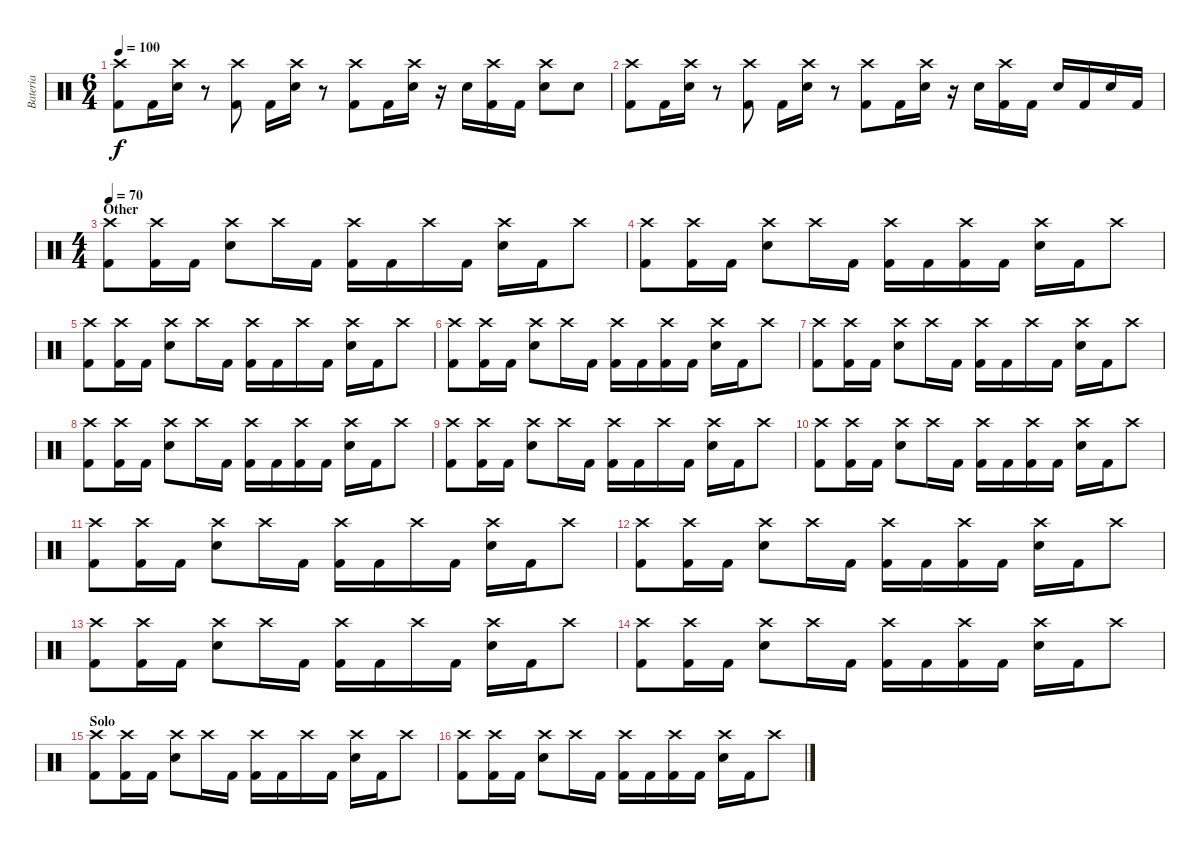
\track ("Bateria" "Bateria") {instrument percussion}
\staff {score}
\articulation defaults
\ts (6 4)
\tempo 100
\clef neutral
\ks c
("Crash high (hit)" "Kick (hit) 2").8{dy f} "Kick (hit) 2".16 ("Crash high (hit)" "Electric Snare (hit)").16 r.8 ("Crash high (hit)" "Kick (hit) 2").8 "Kick (hit) 2".16 ("Crash high (hit)" "Electric Snare (hit)").16 r.8 ("Crash high (hit)" "Kick (hit) 2").8 "Kick (hit) 2".16 ("Crash high (hit)" "Electric Snare (hit)").16 r.16 "Electric Snare (hit)".16 ("Crash high (hit)" "Kick (hit) 2").16 "Kick (hit) 2".16 ("Crash high (hit)" "Electric Snare (hit)").8 "Electric Snare (hit)".8 |
("Crash high (hit)" "Kick (hit) 2").8 "Kick (hit) 2".16 ("Crash high (hit)" "Electric Snare (hit)").16 r.8 ("Crash high (hit)" "Kick (hit) 2").8 "Kick (hit) 2".16 ("Crash high (hit)" "Electric Snare (hit)").16 r.8 ("Crash high (hit)" "Kick (hit) 2").8 "Kick (hit) 2".16 ("Crash high (hit)" "Electric Snare (hit)").16 r.16 "Electric Snare (hit)".16 ("Crash high (hit)" "Kick (hit) 2").16 "Kick (hit) 2".16 "Electric Snare (hit)".16 "Kick (hit) 2".16 "Electric Snare (hit)".16 "Kick (hit) 2".16 |
\ts (4 4)
\section ("" "Other")
\tempo 70
("Crash high (hit)" "Kick (hit) 2").8 ("Crash high (hit)" "Kick (hit) 2").16 "Kick (hit) 2".16 ("Crash high (hit)" "Electric Snare (hit)").8 "Crash high (hit)".16 "Kick (hit) 2".16 ("Crash high (hit)" "Kick (hit) 2").16 "Kick (hit) 2".16 "Crash high (hit)".16 "Kick (hit) 2".16 ("Crash high (hit)" "Electric Snare (hit)").16 "Kick (hit) 2".16 "Crash high (hit)".8 |
("Crash high (hit)" "Kick (hit) 2").8 ("Crash high (hit)" "Kick (hit) 2").16 "Kick (hit) 2".16 ("Crash high (hit)" "Electric Snare (hit)").8 "Crash high (hit)".16 "Kick (hit) 2".16 ("Crash high (hit)" "Kick (hit) 2").16 "Kick (hit) 2".16 ("Crash high (hit)" "Kick (hit) 2").16 "Kick (hit) 2".16 ("Crash high (hit)" "Electric Snare (hit)").16 "Kick (hit) 2".16 "Crash high (hit)".8 |
("Crash high (hit)" "Kick (hit) 2").8 ("Crash high (hit)" "Kick (hit) 2").16 "Kick (hit) 2".16 ("Crash high (hit)" "Electric Snare (hit)").8 "Crash high (hit)".16 "Kick (hit) 2".16 ("Crash high (hit)" "Kick (hit) 2").16 "Kick (hit) 2".16 "Crash high (hit)".16 "Kick (hit) 2".16 ("Crash high (hit)" "Electric Snare (hit)").16 "Kick (hit) 2".16 "Crash high (hit)".8 |
("Crash high (hit)" "Kick (hit) 2").8 ("Crash high (hit)" "Kick (hit) 2").16 "Kick (hit) 2".16 ("Crash high (hit)" "Electric Snare (hit)").8 "Crash high (hit)".16 "Kick (hit) 2".16 ("Crash high (hit)" "Kick (hit) 2").16 "Kick (hit) 2".16 ("Crash high (hit)" "Kick (hit) 2").16 "Kick (hit) 2".16 ("Crash high (hit)" "Electric Snare (hit)").16 "Kick (hit) 2".16 "Crash high (hit)".8 |
("Crash high (hit)" "Kick (hit) 2").8 ("Crash high (hit)" "Kick (hit) 2").16 "Kick (hit) 2".16 ("Crash high (hit)" "Electric Snare (hit)").8 "Crash high (hit)".16 "Kick (hit) 2".16 ("Crash high (hit)" "Kick (hit) 2").16 "Kick (hit) 2".16 "Crash high (hit)".16 "Kick (hit) 2".16 ("Crash high (hit)" "Electric Snare (hit)").16 "Kick (hit) 2".16 "Crash high (hit)".8 |
("Crash high (hit)" "Kick (hit) 2").8 ("Crash high (hit)" "Kick (hit) 2").16 "Kick (hit) 2".16 ("Crash high (hit)" "Electric Snare (hit)").8 "Crash high (hit)".16 "Kick (hit) 2".16 ("Crash high (hit)" "Kick (hit) 2").16 "Kick (hit) 2".16 ("Crash high (hit)" "Kick (hit) 2").16 "Kick (hit) 2".16 ("Crash high (hit)" "Electric Snare (hit)").16 "Kick (hit) 2".16 "Crash high (hit)".8 |
("Crash high (hit)" "Kick (hit) 2").8 ("Crash high (hit)" "Kick (hit) 2").16 "Kick (hit) 2".16 ("Crash high (hit)" "Electric Snare (hit)").8 "Crash high (hit)".16 "Kick (hit) 2".16 ("Crash high (hit)" "Kick (hit) 2").16 "Kick (hit) 2".16 "Crash high (hit)".16 "Kick (hit) 2".16 ("Crash high (hit)" "Electric Snare (hit)").16 "Kick (hit) 2".16 "Crash high (hit)".8 |
("Crash high (hit)" "Kick (hit) 2").8 ("Crash high (hit)" "Kick (hit) 2").16 "Kick (hit) 2".16 ("Crash high (hit)" "Electric Snare (hit)").8 "Crash high (hit)".16 "Kick (hit) 2".16 ("Crash high (hit)" "Kick (hit) 2").16 "Kick (hit) 2".16 ("Crash high (hit)" "Kick (hit) 2").16 "Kick (hit) 2".16 ("Crash high (hit)" "Electric Snare (hit)").16 "Kick (hit) 2".16 "Crash high (hit)".8 |
("Crash high (hit)" "Kick (hit) 2").8 ("Crash high (hit)" "Kick (hit) 2").16 "Kick (hit) 2".16 ("Crash high (hit)" "Electric Snare (hit)").8 "Crash high (hit)".16 "Kick (hit) 2".16 ("Crash high (hit)" "Kick (hit) 2").16 "Kick (hit) 2".16 "Crash high (hit)".16 "Kick (hit) 2".16 ("Crash high (hit)" "Electric Snare (hit)").16 "Kick (hit) 2".16 "Crash high (hit)".8 |
("Crash high (hit)" "Kick (hit) 2").8 ("Crash high (hit)" "Kick (hit) 2").16 "Kick (hit) 2".16 ("Crash high (hit)" "Electric Snare (hit)").8 "Crash high (hit)".16 "Kick (hit) 2".16 ("Crash high (hit)" "Kick (hit) 2").16 "Kick (hit) 2".16 ("Crash high (hit)" "Kick (hit) 2").16 "Kick (hit) 2".16 ("Crash high (hit)" "Electric Snare (hit)").16 "Kick (hit) 2".16 "Crash high (hit)".8 |
("Crash high (hit)" "Kick (hit) 2").8 ("Crash high (hit)" "Kick (hit) 2").16 "Kick (hit) 2".16 ("Crash high (hit)" "Electric Snare (hit)").8 "Crash high (hit)".16 "Kick (hit) 2".16 ("Crash high (hit)" "Kick (hit) 2").16 "Kick (hit) 2".16 "Crash high (hit)".16 "Kick (hit) 2".16 ("Crash high (hit)" "Electric Snare (hit)").16 "Kick (hit) 2".16 "Crash high (hit)".8 |
("Crash high (hit)" "Kick (hit) 2").8 ("Crash high (hit)" "Kick (hit) 2").16 "Kick (hit) 2".16 ("Crash high (hit)" "Electric Snare (hit)").8 "Crash high (hit)".16 "Kick (hit) 2".16 ("Crash high (hit)" "Kick (hit) 2").16 "Kick (hit) 2".16 ("Crash high (hit)" "Kick (hit) 2").16 "Kick (hit) 2".16 ("Crash high (hit)" "Electric Snare (hit)").16 "Kick (hit) 2".16 "Crash high (hit)".8 |
\section ("" "Solo")
("Crash high (hit)" "Kick (hit) 2").8 ("Crash high (hit)" "Kick (hit) 2").16 "Kick (hit) 2".16 ("Crash high (hit)" "Electric Snare (hit)").8 "Crash high (hit)".16 "Kick (hit) 2".16 ("Crash high (hit)" "Kick (hit) 2").16 "Kick (hit) 2".16 "Crash high (hit)".16 "Kick (hit) 2".16 ("Crash high (hit)" "Electric Snare (hit)").16 "Kick (hit) 2".16 "Crash high (hit)".8 |
("Crash high (hit)" "Kick (hit) 2").8 ("Crash high (hit)" "Kick (hit) 2").16 "Kick (hit) 2".16 ("Crash high (hit)" "Electric Snare (hit)").8 "Crash high (hit)".16 "Kick (hit) 2".16 ("Crash high (hit)" "Kick (hit) 2").16 "Kick (hit) 2".16 ("Crash high (hit)" "Kick (hit) 2").16 "Kick (hit) 2".16 ("Crash high (hit)" "Electric Snare (hit)").16 "Kick (hit) 2".16 "Crash high (hit)".8
